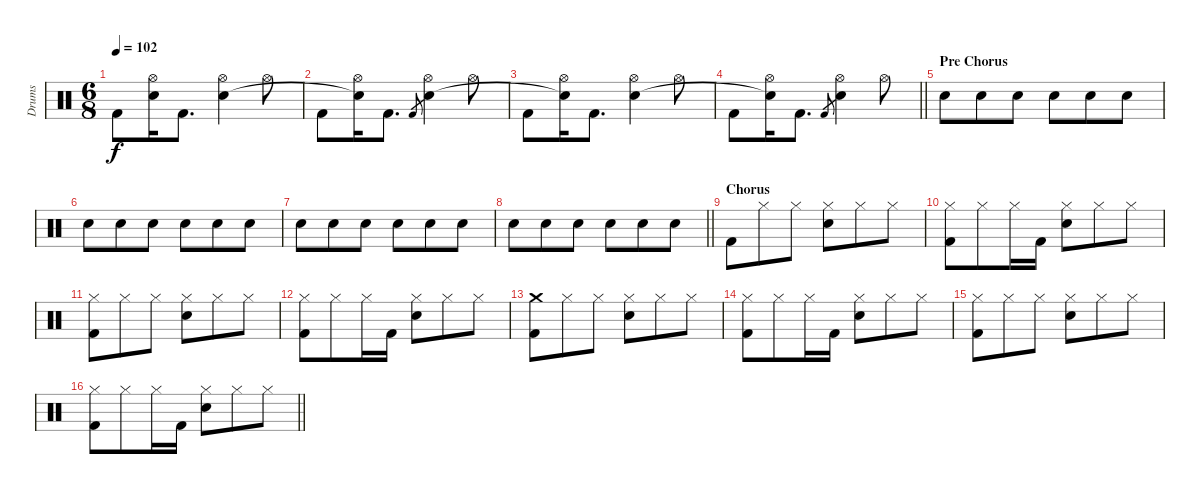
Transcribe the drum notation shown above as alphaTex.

\track ("Drums" "Drums") {instrument percussion}
\staff {score}
\articulation defaults
\ts (6 8)
\tempo 102
\clef neutral
\ks aminor "Kick (hit) 2".8{dy f}
("Hi-Hat (open)" "Snare (hit)"{t}).16 "Kick (hit) 2".8{d} ("Hi-Hat (open)" "Snare (hit) 2").4 "Hi-Hat (open)".8 |
"Kick (hit) 2".8 ("Hi-Hat (open)" "Snare (hit)"{t}).16 "Kick (hit) 2".8{d} "Kick (hit) 2".8{gr} ("Hi-Hat (open)" "Snare (hit) 2").4 "Hi-Hat (open)".8 |
"Kick (hit) 2".8 ("Hi-Hat (open)" "Snare (hit)"{t}).16 "Kick (hit) 2".8{d} ("Hi-Hat (open)" "Snare (hit) 2").4 "Hi-Hat (open)".8 |
\barLineRight lightlight "Kick (hit) 2".8
("Hi-Hat (open)" "Snare (hit)"{t}).16 "Kick (hit) 2".8{d} "Kick (hit) 2".8{gr} ("Hi-Hat (open)" "Snare (hit) 2").4 "Hi-Hat (open)".8 |
\section ("" "Pre Chorus")
"Snare (hit) 2".8{volume 5} "Snare (hit) 2".8{volume 14} "Snare (hit) 2".8 "Snare (hit) 2".8 "Snare (hit) 2".8 "Snare (hit) 2".8 |
"Snare (hit) 2".8 "Snare (hit) 2".8 "Snare (hit) 2".8 "Snare (hit) 2".8 "Snare (hit) 2".8 "Snare (hit) 2".8 |
"Snare (hit) 2".8 "Snare (hit) 2".8 "Snare (hit) 2".8 "Snare (hit) 2".8 "Snare (hit) 2".8 "Snare (hit) 2".8 |
\barLineRight lightlight "Snare (hit) 2".8 "Snare (hit) 2".8 "Snare (hit) 2".8 "Snare (hit) 2".8 "Snare (hit) 2".8 "Snare (hit) 2".8
|
\section ("" "Chorus")
"Kick (hit) 2".8 "Hi-Hat (closed)".8 "Hi-Hat (closed)".8 ("Hi-Hat (closed)" "Snare (hit) 2").8 "Hi-Hat (closed)".8 "Hi-Hat (closed)".8 |
("Hi-Hat (closed)" "Kick (hit) 2").8 "Hi-Hat (closed)".8 "Hi-Hat (closed)".16 "Kick (hit) 2".16 ("Hi-Hat (closed)" "Snare (hit) 2").8 "Hi-Hat (closed)".8 "Hi-Hat (closed)".8 |
("Hi-Hat (closed)" "Kick (hit) 2").8 "Hi-Hat (closed)".8 "Hi-Hat (closed)".8 ("Hi-Hat (closed)" "Snare (hit) 2").8 "Hi-Hat (closed)".8 "Hi-Hat (closed)".8 |
("Hi-Hat (closed)" "Kick (hit) 2").8 "Hi-Hat (closed)".8 "Hi-Hat (closed)".16 "Kick (hit) 2".16 ("Hi-Hat (closed)" "Snare (hit) 2").8 "Hi-Hat (closed)".8 "Hi-Hat (closed)".8 |
("Crash medium (hit)" "Kick (hit) 2").8 "Hi-Hat (closed)".8 "Hi-Hat (closed)".8 ("Hi-Hat (closed)" "Snare (hit) 2").8 "Hi-Hat (closed)".8 "Hi-Hat (closed)".8 |
("Hi-Hat (closed)" "Kick (hit) 2").8 "Hi-Hat (closed)".8 "Hi-Hat (closed)".16 "Kick (hit) 2".16 ("Hi-Hat (closed)" "Snare (hit) 2").8 "Hi-Hat (closed)".8 "Hi-Hat (closed)".8 |
("Hi-Hat (closed)" "Kick (hit) 2").8 "Hi-Hat (closed)".8 "Hi-Hat (closed)".8 ("Hi-Hat (closed)" "Snare (hit) 2").8 "Hi-Hat (closed)".8 "Hi-Hat (closed)".8 |
\barLineRight lightlight
("Hi-Hat (closed)" "Kick (hit) 2").8 "Hi-Hat (closed)".8 "Hi-Hat (closed)".16 "Kick (hit) 2".16 ("Hi-Hat (closed)" "Snare (hit) 2").8 "Hi-Hat (closed)".8 "Hi-Hat (closed)".8
